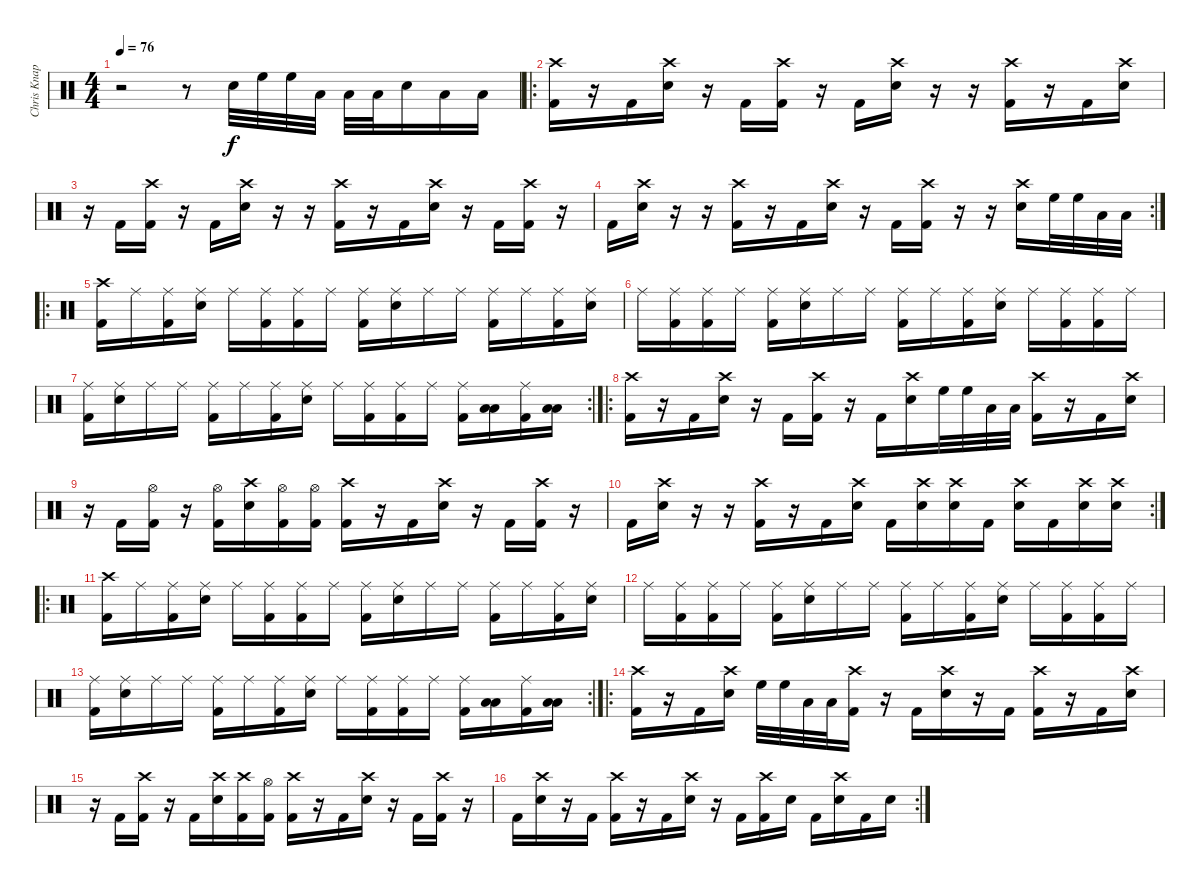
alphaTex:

\track ("Chris Knapp" "Chris Knap") {instrument percussion}
\staff {score}
\articulation defaults
\ts (4 4)
\tempo 76
\clef neutral
\ks c
r.2{dy f} r.8 "Snare (hit) 2".32 "High Floor Tom (hit)".32 "High Floor Tom (hit)".32 "Low Tom (hit)".32 "Low Tom (hit)".32 "Low Floor Tom (hit)".32 "Snare (hit) 2".16 "Low Tom (hit)".16 "Low Floor Tom (hit)".16 |
\ro
("Crash high (hit)" "Kick (hit) 2").16 r.16 "Kick (hit) 2".16 ("Crash high (hit)" "Snare (hit) 2").16 r.16 "Kick (hit) 2".16 ("Crash high (hit)" "Kick (hit) 2").16 r.16 "Kick (hit) 2".16 ("Crash high (hit)" "Snare (hit) 2").16 r.16 r.16 ("Crash high (hit)" "Kick (hit) 2").16 r.16 "Kick (hit) 2".16 ("Crash high (hit)" "Snare (hit) 2").16 |
r.16 "Kick (hit) 2".16 ("Crash high (hit)" "Kick (hit) 2").16 r.16 "Kick (hit) 2".16 ("Crash high (hit)" "Snare (hit) 2").16 r.16 r.16 ("Crash high (hit)" "Kick (hit) 2").16 r.16 "Kick (hit) 2".16 ("Crash high (hit)" "Snare (hit) 2").16 r.16 "Kick (hit) 2".16 ("Crash high (hit)" "Kick (hit) 2").16 r.16 |
\rc 2 "Kick (hit) 2".16
("Crash high (hit)" "Snare (hit) 2").16 r.16 r.16 ("Crash high (hit)" "Kick (hit) 2").16 r.16 "Kick (hit) 2".16 ("Crash high (hit)" "Snare (hit) 2").16 r.16 "Kick (hit) 2".16 ("Crash high (hit)" "Kick (hit) 2").16 r.16 r.16 ("Crash high (hit)" "Snare (hit) 2").16 "High Floor Tom (hit)".32 "High Floor Tom (hit)".32 "Low Tom (hit)".32 "Low Tom (hit)".32 |
\ro
("Crash high (hit)" "Kick (hit) 2").16 "Ride (middle)".16 ("Ride (middle)" "Kick (hit) 2").16 ("Ride (middle)" "Snare (hit) 2").16 "Ride (middle)".16 ("Ride (middle)" "Kick (hit) 2").16 ("Ride (middle)" "Kick (hit) 2").16 "Ride (middle)".16 ("Ride (middle)" "Kick (hit) 2").16 ("Ride (middle)" "Snare (hit) 2").16 "Ride (middle)".16 "Ride (middle)".16 ("Ride (middle)" "Kick (hit) 2").16 "Ride (middle)".16 ("Ride (middle)" "Kick (hit) 2").16 ("Ride (middle)" "Snare (hit) 2").16 |
"Ride (middle)".16 ("Ride (middle)" "Kick (hit) 2").16 ("Ride (middle)" "Kick (hit) 2").16 "Ride (middle)".16 ("Ride (middle)" "Kick (hit) 2").16 ("Ride (middle)" "Snare (hit) 2").16 "Ride (middle)".16 "Ride (middle)".16 ("Ride (middle)" "Kick (hit) 2").16 "Ride (middle)".16 ("Ride (middle)" "Kick (hit) 2").16 ("Ride (middle)" "Snare (hit) 2").16 "Ride (middle)".16 ("Ride (middle)" "Kick (hit) 2").16 ("Ride (middle)" "Kick (hit) 2").16 "Ride (middle)".16 |
\rc 2
("Ride (middle)" "Kick (hit) 2").16 ("Ride (middle)" "Snare (hit) 2").16 "Ride (middle)".16 "Ride (middle)".16 ("Ride (middle)" "Kick (hit) 2").16 "Ride (middle)".16 ("Ride (middle)" "Kick (hit) 2").16 ("Ride (middle)" "Snare (hit) 2").16 "Ride (middle)".16 ("Ride (middle)" "Kick (hit) 2").16 ("Ride (middle)" "Kick (hit) 2").16 "Ride (middle)".16 ("Ride (middle)" "Kick (hit) 2").16 ("Low Tom (hit)" "Low Floor Tom (hit)").16 ("Ride (middle)" "Kick (hit) 2").16 ("Low Tom (hit)" "Low Floor Tom (hit)").16 |
\ro
("Crash high (hit)" "Kick (hit) 2").16 r.16 "Kick (hit) 2".16 ("Crash high (hit)" "Snare (hit) 2").16 r.16 "Kick (hit) 2".16 ("Crash high (hit)" "Kick (hit) 2").16 r.16 "Kick (hit) 2".16 ("Crash high (hit)" "Snare (hit) 2").16 "High Floor Tom (hit)".32 "High Floor Tom (hit)".32 "Low Tom (hit)".32 "Low Tom (hit)".32 ("Crash high (hit)" "Kick (hit) 2").16 r.16 "Kick (hit) 2".16 ("Crash high (hit)" "Snare (hit) 2").16 |
r.16 "Kick (hit) 2".16 ("Hi-Hat (open)" "Kick (hit) 2").16 r.16 ("Hi-Hat (open)" "Kick (hit) 2").16 ("Crash high (hit)" "Snare (hit) 2").16 ("Hi-Hat (open)" "Kick (hit) 2").16 ("Hi-Hat (open)" "Kick (hit) 2").16 ("Crash high (hit)" "Kick (hit) 2").16 r.16 "Kick (hit) 2".16 ("Crash high (hit)" "Snare (hit) 2").16 r.16 "Kick (hit) 2".16 ("Crash high (hit)" "Kick (hit) 2").16 r.16 |
\rc 2 "Kick (hit) 2".16
("Crash high (hit)" "Snare (hit) 2").16 r.16 r.16 ("Crash high (hit)" "Kick (hit) 2").16 r.16 "Kick (hit) 2".16 ("Crash high (hit)" "Snare (hit) 2").16 "Kick (hit) 2".16 ("Crash high (hit)" "Snare (hit) 2").16 ("Crash high (hit)" "Snare (hit) 2").16 "Kick (hit) 2".16 ("Crash high (hit)" "Snare (hit) 2").16 "Kick (hit) 2".16 ("Crash high (hit)" "Snare (hit) 2").16 ("Crash high (hit)" "Snare (hit) 2").16 |
\ro
("Crash high (hit)" "Kick (hit) 2").16 "Ride (middle)".16 ("Ride (middle)" "Kick (hit) 2").16 ("Ride (middle)" "Snare (hit) 2").16 "Ride (middle)".16 ("Ride (middle)" "Kick (hit) 2").16 ("Ride (middle)" "Kick (hit) 2").16 "Ride (middle)".16 ("Ride (middle)" "Kick (hit) 2").16 ("Ride (middle)" "Snare (hit) 2").16 "Ride (middle)".16 "Ride (middle)".16 ("Ride (middle)" "Kick (hit) 2").16 "Ride (middle)".16 ("Ride (middle)" "Kick (hit) 2").16 ("Ride (middle)" "Snare (hit) 2").16 |
"Ride (middle)".16 ("Ride (middle)" "Kick (hit) 2").16 ("Ride (middle)" "Kick (hit) 2").16 "Ride (middle)".16 ("Ride (middle)" "Kick (hit) 2").16 ("Ride (middle)" "Snare (hit) 2").16 "Ride (middle)".16 "Ride (middle)".16 ("Ride (middle)" "Kick (hit) 2").16 "Ride (middle)".16 ("Ride (middle)" "Kick (hit) 2").16 ("Ride (middle)" "Snare (hit) 2").16 "Ride (middle)".16 ("Ride (middle)" "Kick (hit) 2").16 ("Ride (middle)" "Kick (hit) 2").16 "Ride (middle)".16 |
\rc 2
("Ride (middle)" "Kick (hit) 2").16 ("Ride (middle)" "Snare (hit) 2").16 "Ride (middle)".16 "Ride (middle)".16 ("Ride (middle)" "Kick (hit) 2").16 "Ride (middle)".16 ("Ride (middle)" "Kick (hit) 2").16 ("Ride (middle)" "Snare (hit) 2").16 "Ride (middle)".16 ("Ride (middle)" "Kick (hit) 2").16 ("Ride (middle)" "Kick (hit) 2").16 "Ride (middle)".16 ("Ride (middle)" "Kick (hit) 2").16 ("Low Tom (hit)" "Low Floor Tom (hit)").16 ("Ride (middle)" "Kick (hit) 2").16 ("Low Tom (hit)" "Low Floor Tom (hit)").16 |
\ro
("Crash high (hit)" "Kick (hit) 2").16 r.16 "Kick (hit) 2".16 ("Crash high (hit)" "Snare (hit) 2").16 "High Floor Tom (hit)".32 "High Floor Tom (hit)".32 "Low Tom (hit)".32 "Low Tom (hit)".32 ("Crash high (hit)" "Kick (hit) 2").16 r.16 "Kick (hit) 2".16 ("Crash high (hit)" "Snare (hit) 2").16 r.16 "Kick (hit) 2".16 ("Crash high (hit)" "Kick (hit) 2").16 r.16 "Kick (hit) 2".16 ("Crash high (hit)" "Snare (hit) 2").16 |
r.16 "Kick (hit) 2".16 ("Crash high (hit)" "Kick (hit) 2").16 r.16 "Kick (hit) 2".16 ("Crash high (hit)" "Snare (hit) 2").16 ("Crash high (hit)" "Kick (hit) 2").16 ("Hi-Hat (open)" "Kick (hit) 2").16 ("Crash high (hit)" "Kick (hit) 2").16 r.16 "Kick (hit) 2".16 ("Crash high (hit)" "Snare (hit) 2").16 r.16 "Kick (hit) 2".16 ("Crash high (hit)" "Kick (hit) 2").16 r.16 |
\rc 2 "Kick (hit) 2".16
("Crash high (hit)" "Snare (hit) 2").16 r.16 "Kick (hit) 2".16 ("Crash high (hit)" "Kick (hit) 2").16 r.16 "Kick (hit) 2".16 ("Crash high (hit)" "Snare (hit) 2").16 r.16 "Kick (hit) 2".16 ("Crash high (hit)" "Kick (hit) 2").16 "Snare (hit) 2".16 "Kick (hit) 2".16 ("Crash high (hit)" "Snare (hit) 2").16 "Kick (hit) 2".16 "Snare (hit) 2".16
